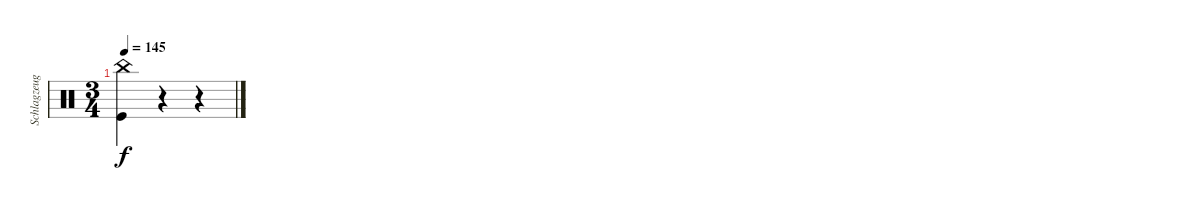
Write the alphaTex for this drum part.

\track ("Schlagzeug" "Schlagzeug") {instrument percussion}
\staff {score}
\articulation defaults
\ts (3 4)
\tempo 145
\clef neutral
\ks c
("China (hit)" "Kick (hit)").4{dy f} r.4 r.4
